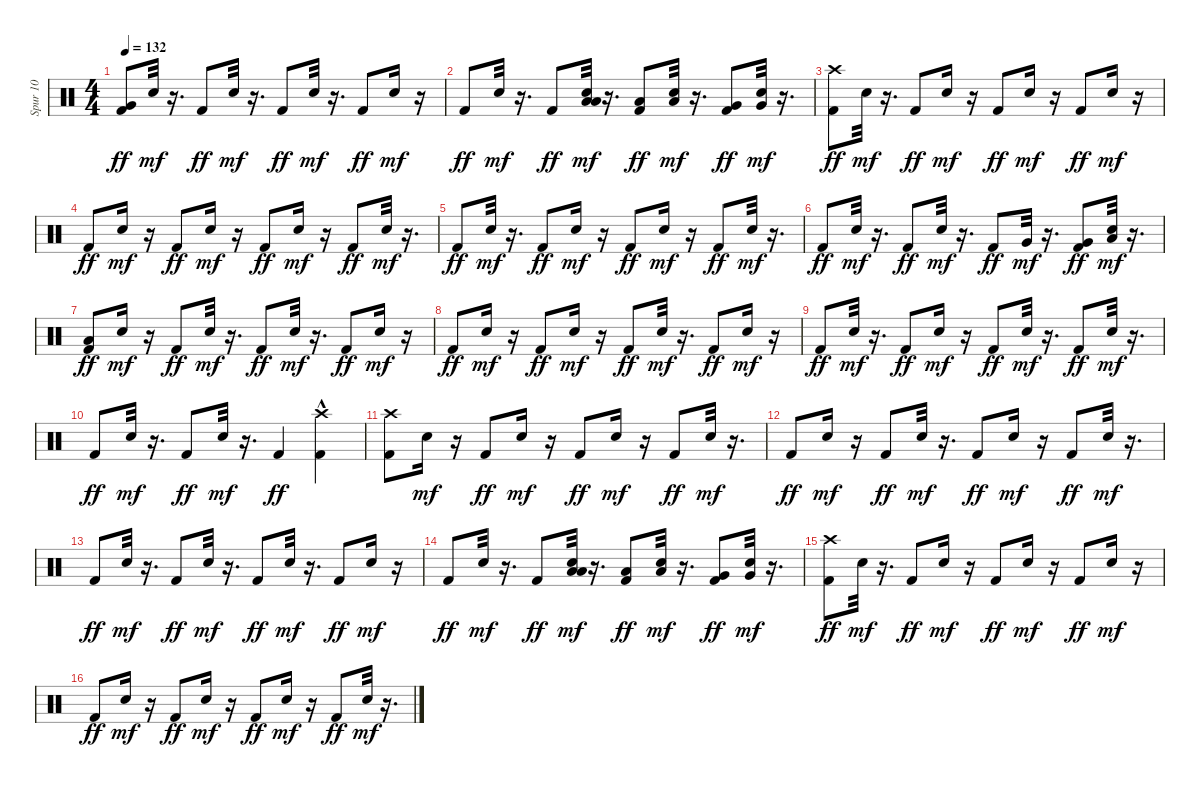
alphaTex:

\track ("Spur 10" "Spur 10") {instrument percussion}
\staff {score}
\articulation defaults
\ts (4 4)
\tempo 132
\clef neutral
\ks c
("Very Low Tom (hit)" "Kick (hit) 2").8{dy ff} "Snare (hit) 2".32{dy mf} r.16{d} "Kick (hit) 2".8{dy ff} "Snare (hit) 2".32{dy mf} r.16{d} "Kick (hit) 2".8{dy ff} "Snare (hit) 2".32{dy mf} r.16{d} "Kick (hit) 2".8{dy ff} "Snare (hit) 2".16{dy mf} r.16 |
"Kick (hit) 2".8{dy ff} "Snare (hit) 2".32{dy mf} r.16{d} "Kick (hit) 2".8{dy ff} ("Snare (hit) 2" "Low Tom (hit)" "Low Tom (hit)").32{dy mf} r.16{d} ("Low Tom (hit)" "Kick (hit) 2").8{dy ff} ("Snare (hit) 2" "Low Tom (hit)").32{dy mf} r.16{d} ("Very Low Tom (hit)" "Kick (hit) 2").8{dy ff} ("Snare (hit) 2" "Very Low Tom (hit)").32{dy mf} r.16{d} |
("Crash high (hit)" "Kick (hit) 2").8{dy ff} "Snare (hit) 2".32{dy mf} r.16{d} "Kick (hit) 2".8{dy ff} "Snare (hit) 2".16{dy mf} r.16 "Kick (hit) 2".8{dy ff} "Snare (hit) 2".16{dy mf} r.16 "Kick (hit) 2".8{dy ff} "Snare (hit) 2".16{dy mf} r.16 |
"Kick (hit) 2".8{dy ff} "Snare (hit) 2".16{dy mf} r.16 "Kick (hit) 2".8{dy ff} "Snare (hit) 2".16{dy mf} r.16 "Kick (hit) 2".8{dy ff} "Snare (hit) 2".16{dy mf} r.16 "Kick (hit) 2".8{dy ff} "Snare (hit) 2".32{dy mf} r.16{d} |
"Kick (hit) 2".8{dy ff} "Snare (hit) 2".32{dy mf} r.16{d} "Kick (hit) 2".8{dy ff} "Snare (hit) 2".16{dy mf} r.16 "Kick (hit) 2".8{dy ff} "Snare (hit) 2".16{dy mf} r.16 "Kick (hit) 2".8{dy ff} "Snare (hit) 2".32{dy mf} r.16{d} |
"Kick (hit) 2".8{dy ff} "Snare (hit) 2".32{dy mf} r.16{d} "Kick (hit) 2".8{dy ff} "Snare (hit) 2".32{dy mf} r.16{d} "Kick (hit) 2".8{dy ff} "Very Low Tom (hit)".32{dy mf} r.16{d} ("Very Low Tom (hit)" "Kick (hit) 2").8{dy ff} ("Snare (hit) 2" "Low Floor Tom (hit)").32{dy mf} r.16{d} |
("Low Floor Tom (hit)" "Kick (hit) 2").8{dy ff} "Snare (hit) 2".16{dy mf} r.16 "Kick (hit) 2".8{dy ff} "Snare (hit) 2".32{dy mf} r.16{d} "Kick (hit) 2".8{dy ff} "Snare (hit) 2".32{dy mf} r.16{d} "Kick (hit) 2".8{dy ff} "Snare (hit) 2".16{dy mf} r.16 |
"Kick (hit) 2".8{dy ff} "Snare (hit) 2".16{dy mf} r.16 "Kick (hit) 2".8{dy ff} "Snare (hit) 2".16{dy mf} r.16 "Kick (hit) 2".8{dy ff} "Snare (hit) 2".32{dy mf} r.16{d} "Kick (hit) 2".8{dy ff} "Snare (hit) 2".16{dy mf} r.16 |
"Kick (hit) 2".8{dy ff} "Snare (hit) 2".32{dy mf} r.16{d} "Kick (hit) 2".8{dy ff} "Snare (hit) 2".16{dy mf} r.16 "Kick (hit) 2".8{dy ff} "Snare (hit) 2".32{dy mf} r.16{d} "Kick (hit) 2".8{dy ff} "Snare (hit) 2".32{dy mf} r.16{d} |
"Kick (hit) 2".8{dy ff} "Snare (hit) 2".32{dy mf} r.16{d} "Kick (hit) 2".8{dy ff} "Snare (hit) 2".32{dy mf} r.16{d} "Kick (hit) 2".4{dy ff} ("Crash high (hit)"{hac} "Kick (hit) 2").4 |
("Crash high (hit)" "Kick (hit) 2").8 "Snare (hit) 2".16{dy mf} r.16 "Kick (hit) 2".8{dy ff} "Snare (hit) 2".16{dy mf} r.16 "Kick (hit) 2".8{dy ff} "Snare (hit) 2".16{dy mf} r.16 "Kick (hit) 2".8{dy ff} "Snare (hit) 2".32{dy mf} r.16{d} |
"Kick (hit) 2".8{dy ff} "Snare (hit) 2".16{dy mf} r.16 "Kick (hit) 2".8{dy ff} "Snare (hit) 2".32{dy mf} r.16{d} "Kick (hit) 2".8{dy ff} "Snare (hit) 2".16{dy mf} r.16 "Kick (hit) 2".8{dy ff} "Snare (hit) 2".32{dy mf} r.16{d} |
"Kick (hit) 2".8{dy ff} "Snare (hit) 2".32{dy mf} r.16{d} "Kick (hit) 2".8{dy ff} "Snare (hit) 2".32{dy mf} r.16{d} "Kick (hit) 2".8{dy ff} "Snare (hit) 2".32{dy mf} r.16{d} "Kick (hit) 2".8{dy ff} "Snare (hit) 2".16{dy mf} r.16 |
"Kick (hit) 2".8{dy ff} "Snare (hit) 2".32{dy mf} r.16{d} "Kick (hit) 2".8{dy ff} ("Snare (hit) 2" "Low Tom (hit)" "Low Tom (hit)").32{dy mf} r.16{d} ("Low Tom (hit)" "Kick (hit) 2").8{dy ff} ("Snare (hit) 2" "Low Tom (hit)").32{dy mf} r.16{d} ("Very Low Tom (hit)" "Kick (hit) 2").8{dy ff} ("Snare (hit) 2" "Very Low Tom (hit)").32{dy mf} r.16{d} |
("Crash high (hit)" "Kick (hit) 2").8{dy ff} "Snare (hit) 2".32{dy mf} r.16{d} "Kick (hit) 2".8{dy ff} "Snare (hit) 2".16{dy mf} r.16 "Kick (hit) 2".8{dy ff} "Snare (hit) 2".16{dy mf} r.16 "Kick (hit) 2".8{dy ff} "Snare (hit) 2".16{dy mf} r.16 |
"Kick (hit) 2".8{dy ff} "Snare (hit) 2".16{dy mf} r.16 "Kick (hit) 2".8{dy ff} "Snare (hit) 2".16{dy mf} r.16 "Kick (hit) 2".8{dy ff} "Snare (hit) 2".16{dy mf} r.16 "Kick (hit) 2".8{dy ff} "Snare (hit) 2".32{dy mf} r.16{d}
